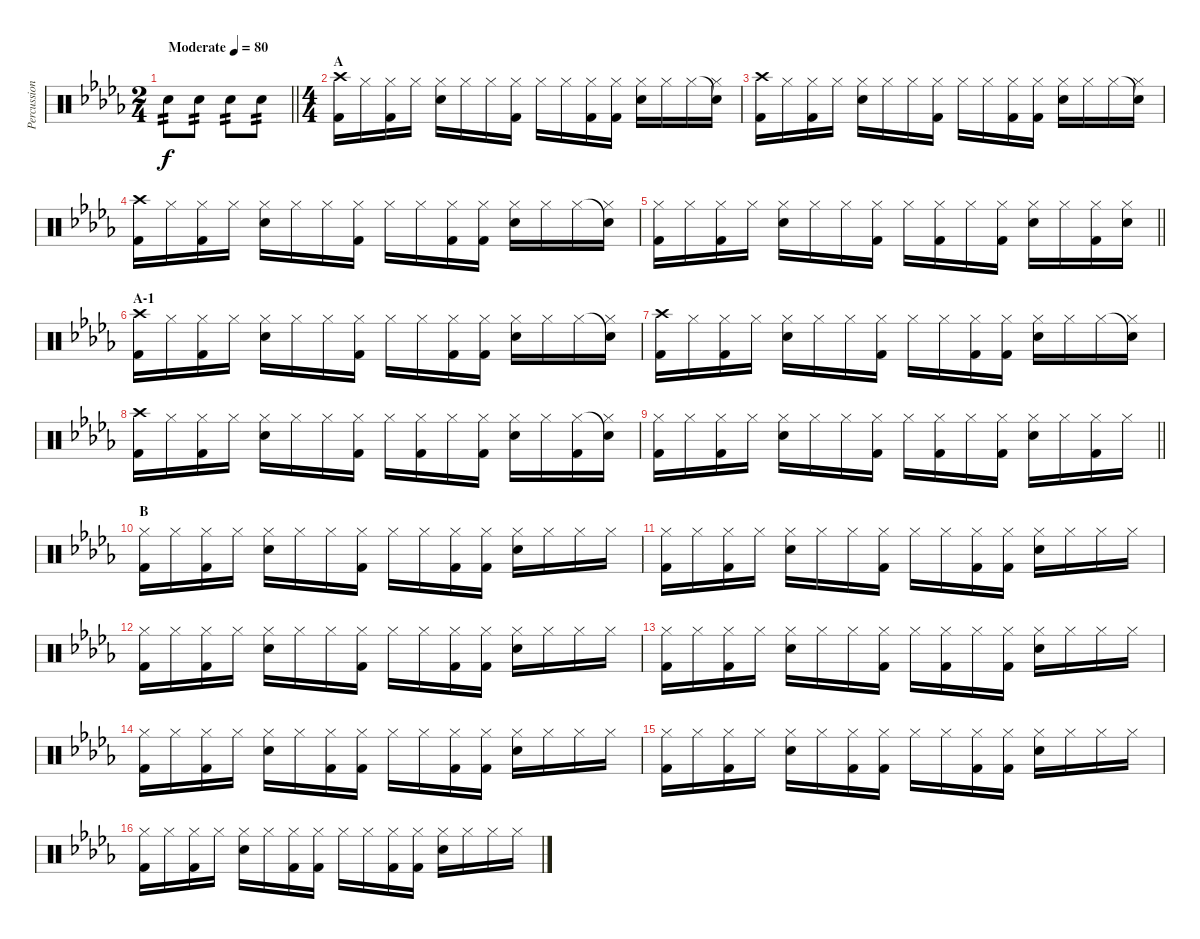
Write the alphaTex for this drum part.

\track ("Percussion" "Percussion") {instrument percussion}
\staff {score}
\articulation defaults
\ts (2 4)
\tempo (80 "Moderate")
\clef neutral
\barLineRight lightlight
\ks db "Electric Snare (hit)".8{tp 2 dy f} "Electric Snare (hit)".8{tp 2} "Electric Snare (hit)".8{tp 2} "Electric Snare (hit)".8{tp 2}
|
\ts (4 4)
\section ("" "A")
("Crash high (hit)" "Kick (hit) 2").16 "Hi-Hat (closed)".16 ("Hi-Hat (closed)" "Kick (hit) 2").16 "Hi-Hat (closed)".16 ("Hi-Hat (closed)" "Electric Snare (hit)").16 "Hi-Hat (closed)".16 "Hi-Hat (closed)".16 ("Hi-Hat (closed)" "Kick (hit) 2").16 "Hi-Hat (closed)".16 "Hi-Hat (closed)".16 ("Hi-Hat (closed)" "Kick (hit) 2").16 ("Hi-Hat (closed)" "Kick (hit) 2").16 ("Hi-Hat (closed)" "Electric Snare (hit)").16 "Hi-Hat (closed)".16 "Hi-Hat (closed)".16 ("Snare (hit)"{t} "Hi-Hat (closed)").16 |
("Crash high (hit)" "Kick (hit) 2").16 "Hi-Hat (closed)".16 ("Hi-Hat (closed)" "Kick (hit) 2").16 "Hi-Hat (closed)".16 ("Hi-Hat (closed)" "Electric Snare (hit)").16 "Hi-Hat (closed)".16 "Hi-Hat (closed)".16 ("Hi-Hat (closed)" "Kick (hit) 2").16 "Hi-Hat (closed)".16 "Hi-Hat (closed)".16 ("Hi-Hat (closed)" "Kick (hit) 2").16 ("Hi-Hat (closed)" "Kick (hit) 2").16 ("Hi-Hat (closed)" "Electric Snare (hit)").16 "Hi-Hat (closed)".16 "Hi-Hat (closed)".16 ("Snare (hit)"{t} "Hi-Hat (closed)").16 |
("Crash high (hit)" "Kick (hit) 2").16 "Hi-Hat (closed)".16 ("Hi-Hat (closed)" "Kick (hit) 2").16 "Hi-Hat (closed)".16 ("Hi-Hat (closed)" "Electric Snare (hit)").16 "Hi-Hat (closed)".16 "Hi-Hat (closed)".16 ("Hi-Hat (closed)" "Kick (hit) 2").16 "Hi-Hat (closed)".16 "Hi-Hat (closed)".16 ("Hi-Hat (closed)" "Kick (hit) 2").16 ("Hi-Hat (closed)" "Kick (hit) 2").16 ("Hi-Hat (closed)" "Electric Snare (hit)").16 "Hi-Hat (closed)".16 "Hi-Hat (closed)".16 ("Snare (hit)"{t} "Hi-Hat (closed)").16 |
\barLineRight lightlight
("Hi-Hat (closed)" "Kick (hit) 2").16 "Hi-Hat (closed)".16 ("Hi-Hat (closed)" "Kick (hit) 2").16 "Hi-Hat (closed)".16 ("Hi-Hat (closed)" "Electric Snare (hit)").16 "Hi-Hat (closed)".16 "Hi-Hat (closed)".16 ("Hi-Hat (closed)" "Kick (hit) 2").16 "Hi-Hat (closed)".16 ("Hi-Hat (closed)" "Kick (hit) 2").16 "Hi-Hat (closed)".16 ("Hi-Hat (closed)" "Kick (hit) 2").16 ("Hi-Hat (closed)" "Electric Snare (hit)").16 "Hi-Hat (closed)".16 ("Hi-Hat (closed)" "Kick (hit) 2").16 ("Hi-Hat (closed)" "Electric Snare (hit)").16 |
\section ("" "A-1")
("Crash high (hit)" "Kick (hit) 2").16 "Hi-Hat (closed)".16 ("Hi-Hat (closed)" "Kick (hit) 2").16 "Hi-Hat (closed)".16 ("Hi-Hat (closed)" "Electric Snare (hit)").16 "Hi-Hat (closed)".16 "Hi-Hat (closed)".16 ("Hi-Hat (closed)" "Kick (hit) 2").16 "Hi-Hat (closed)".16 "Hi-Hat (closed)".16 ("Hi-Hat (closed)" "Kick (hit) 2").16 ("Hi-Hat (closed)" "Kick (hit) 2").16 ("Hi-Hat (closed)" "Electric Snare (hit)").16 "Hi-Hat (closed)".16 "Hi-Hat (closed)".16 ("Snare (hit)"{t} "Hi-Hat (closed)").16 |
("Crash high (hit)" "Kick (hit) 2").16 "Hi-Hat (closed)".16 ("Hi-Hat (closed)" "Kick (hit) 2").16 "Hi-Hat (closed)".16 ("Hi-Hat (closed)" "Electric Snare (hit)").16 "Hi-Hat (closed)".16 "Hi-Hat (closed)".16 ("Hi-Hat (closed)" "Kick (hit) 2").16 "Hi-Hat (closed)".16 "Hi-Hat (closed)".16 ("Hi-Hat (closed)" "Kick (hit) 2").16 ("Hi-Hat (closed)" "Kick (hit) 2").16 ("Hi-Hat (closed)" "Electric Snare (hit)").16 "Hi-Hat (closed)".16 "Hi-Hat (closed)".16 ("Snare (hit)"{t} "Hi-Hat (closed)").16 |
("Crash high (hit)" "Kick (hit) 2").16 "Hi-Hat (closed)".16 ("Hi-Hat (closed)" "Kick (hit) 2").16 "Hi-Hat (closed)".16 ("Hi-Hat (closed)" "Electric Snare (hit)").16 "Hi-Hat (closed)".16 "Hi-Hat (closed)".16 ("Hi-Hat (closed)" "Kick (hit) 2").16 "Hi-Hat (closed)".16 ("Hi-Hat (closed)" "Kick (hit) 2").16 "Hi-Hat (closed)".16 ("Hi-Hat (closed)" "Kick (hit) 2").16 ("Hi-Hat (closed)" "Electric Snare (hit)").16 "Hi-Hat (closed)".16 ("Hi-Hat (closed)" "Kick (hit) 2").16 ("Snare (hit)"{t} "Hi-Hat (closed)").16 |
\barLineRight lightlight
("Hi-Hat (closed)" "Kick (hit) 2").16 "Hi-Hat (closed)".16 ("Hi-Hat (closed)" "Kick (hit) 2").16 "Hi-Hat (closed)".16 ("Hi-Hat (closed)" "Electric Snare (hit)").16 "Hi-Hat (closed)".16 "Hi-Hat (closed)".16 ("Hi-Hat (closed)" "Kick (hit) 2").16 "Hi-Hat (closed)".16 ("Hi-Hat (closed)" "Kick (hit) 2").16 "Hi-Hat (closed)".16 ("Hi-Hat (closed)" "Kick (hit) 2").16 ("Hi-Hat (closed)" "Electric Snare (hit)").16 "Hi-Hat (closed)".16 ("Hi-Hat (closed)" "Kick (hit) 2").16 "Hi-Hat (closed)".16 |
\section ("" "B")
("Hi-Hat (closed)" "Kick (hit) 2").16 "Hi-Hat (closed)".16 ("Hi-Hat (closed)" "Kick (hit) 2").16 "Hi-Hat (closed)".16 ("Hi-Hat (closed)" "Electric Snare (hit)").16 "Hi-Hat (closed)".16 "Hi-Hat (closed)".16 ("Hi-Hat (closed)" "Kick (hit) 2").16 "Hi-Hat (closed)".16 "Hi-Hat (closed)".16 ("Hi-Hat (closed)" "Kick (hit) 2").16 ("Hi-Hat (closed)" "Kick (hit) 2").16 ("Hi-Hat (closed)" "Electric Snare (hit)").16 "Hi-Hat (closed)".16 "Hi-Hat (closed)".16 "Hi-Hat (closed)".16 |
("Hi-Hat (closed)" "Kick (hit) 2").16 "Hi-Hat (closed)".16 ("Hi-Hat (closed)" "Kick (hit) 2").16 "Hi-Hat (closed)".16 ("Hi-Hat (closed)" "Electric Snare (hit)").16 "Hi-Hat (closed)".16 "Hi-Hat (closed)".16 ("Hi-Hat (closed)" "Kick (hit) 2").16 "Hi-Hat (closed)".16 "Hi-Hat (closed)".16 ("Hi-Hat (closed)" "Kick (hit) 2").16 ("Hi-Hat (closed)" "Kick (hit) 2").16 ("Hi-Hat (closed)" "Electric Snare (hit)").16 "Hi-Hat (closed)".16 "Hi-Hat (closed)".16 "Hi-Hat (closed)".16 |
("Hi-Hat (closed)" "Kick (hit) 2").16 "Hi-Hat (closed)".16 ("Hi-Hat (closed)" "Kick (hit) 2").16 "Hi-Hat (closed)".16 ("Hi-Hat (closed)" "Electric Snare (hit)").16 "Hi-Hat (closed)".16 "Hi-Hat (closed)".16 ("Hi-Hat (closed)" "Kick (hit) 2").16 "Hi-Hat (closed)".16 "Hi-Hat (closed)".16 ("Hi-Hat (closed)" "Kick (hit) 2").16 ("Hi-Hat (closed)" "Kick (hit) 2").16 ("Hi-Hat (closed)" "Electric Snare (hit)").16 "Hi-Hat (closed)".16 "Hi-Hat (closed)".16 "Hi-Hat (closed)".16 |
("Hi-Hat (closed)" "Kick (hit) 2").16 "Hi-Hat (closed)".16 ("Hi-Hat (closed)" "Kick (hit) 2").16 "Hi-Hat (closed)".16 ("Hi-Hat (closed)" "Electric Snare (hit)").16 "Hi-Hat (closed)".16 "Hi-Hat (closed)".16 ("Hi-Hat (closed)" "Kick (hit) 2").16 "Hi-Hat (closed)".16 ("Hi-Hat (closed)" "Kick (hit) 2").16 "Hi-Hat (closed)".16 ("Hi-Hat (closed)" "Kick (hit) 2").16 ("Hi-Hat (closed)" "Electric Snare (hit)").16 "Hi-Hat (closed)".16 "Hi-Hat (closed)".16 "Hi-Hat (closed)".16 |
("Hi-Hat (closed)" "Kick (hit) 2").16 "Hi-Hat (closed)".16 ("Hi-Hat (closed)" "Kick (hit) 2").16 "Hi-Hat (closed)".16 ("Hi-Hat (closed)" "Electric Snare (hit)").16 "Hi-Hat (closed)".16 ("Hi-Hat (closed)" "Kick (hit) 2").16 ("Hi-Hat (closed)" "Kick (hit) 2").16 "Hi-Hat (closed)".16 "Hi-Hat (closed)".16 ("Hi-Hat (closed)" "Kick (hit) 2").16 ("Hi-Hat (closed)" "Kick (hit) 2").16 ("Hi-Hat (closed)" "Electric Snare (hit)").16 "Hi-Hat (closed)".16 "Hi-Hat (closed)".16 "Hi-Hat (closed)".16 |
("Hi-Hat (closed)" "Kick (hit) 2").16 "Hi-Hat (closed)".16 ("Hi-Hat (closed)" "Kick (hit) 2").16 "Hi-Hat (closed)".16 ("Hi-Hat (closed)" "Electric Snare (hit)").16 "Hi-Hat (closed)".16 ("Hi-Hat (closed)" "Kick (hit) 2").16 ("Hi-Hat (closed)" "Kick (hit) 2").16 "Hi-Hat (closed)".16 "Hi-Hat (closed)".16 ("Hi-Hat (closed)" "Kick (hit) 2").16 ("Hi-Hat (closed)" "Kick (hit) 2").16 ("Hi-Hat (closed)" "Electric Snare (hit)").16 "Hi-Hat (closed)".16 "Hi-Hat (closed)".16 "Hi-Hat (closed)".16 |
("Hi-Hat (closed)" "Kick (hit) 2").16 "Hi-Hat (closed)".16 ("Hi-Hat (closed)" "Kick (hit) 2").16 "Hi-Hat (closed)".16 ("Hi-Hat (closed)" "Electric Snare (hit)").16 "Hi-Hat (closed)".16 ("Hi-Hat (closed)" "Kick (hit) 2").16 ("Hi-Hat (closed)" "Kick (hit) 2").16 "Hi-Hat (closed)".16 "Hi-Hat (closed)".16 ("Hi-Hat (closed)" "Kick (hit) 2").16 ("Hi-Hat (closed)" "Kick (hit) 2").16 ("Hi-Hat (closed)" "Electric Snare (hit)").16 "Hi-Hat (closed)".16 "Hi-Hat (closed)".16 "Hi-Hat (closed)".16
